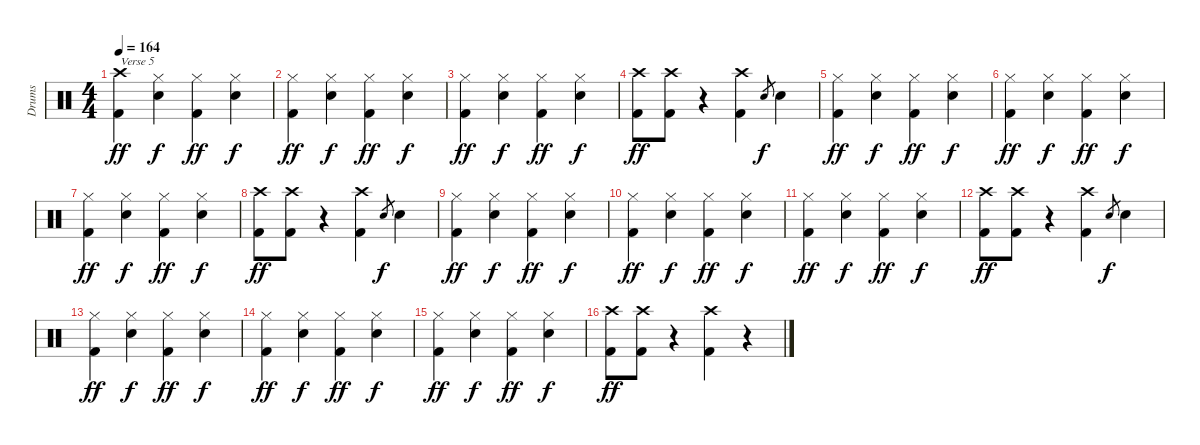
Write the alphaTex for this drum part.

\track ("Drums" "Drums") {instrument percussion}
\staff {score}
\articulation defaults
\ts (4 4)
\tempo 164
\clef neutral
\ks c
("Crash high (hit)" "Kick (hit) 2").4{txt "Verse 5" dy ff} ("Hi-Hat (closed)" "Snare (hit) 2").4{dy f} ("Hi-Hat (closed)" "Kick (hit) 2").4{dy ff} ("Hi-Hat (closed)" "Snare (hit) 2").4{dy f} |
("Hi-Hat (closed)" "Kick (hit) 2").4{dy ff} ("Hi-Hat (closed)" "Snare (hit) 2").4{dy f} ("Hi-Hat (closed)" "Kick (hit) 2").4{dy ff} ("Hi-Hat (closed)" "Snare (hit) 2").4{dy f} |
("Hi-Hat (closed)" "Kick (hit) 2").4{dy ff} ("Hi-Hat (closed)" "Snare (hit) 2").4{dy f} ("Hi-Hat (closed)" "Kick (hit) 2").4{dy ff} ("Hi-Hat (closed)" "Snare (hit) 2").4{dy f} |
("Crash high (hit)" "Kick (hit) 2").8{dy ff} ("Crash high (hit)" "Kick (hit) 2").8 r.4 ("Crash high (hit)" "Kick (hit) 2").4 "Snare (hit) 2".8{gr dy f} "Snare (hit) 2".4 |
("Hi-Hat (closed)" "Kick (hit) 2").4{dy ff} ("Hi-Hat (closed)" "Snare (hit) 2").4{dy f} ("Hi-Hat (closed)" "Kick (hit) 2").4{dy ff} ("Hi-Hat (closed)" "Snare (hit) 2").4{dy f} |
("Hi-Hat (closed)" "Kick (hit) 2").4{dy ff} ("Hi-Hat (closed)" "Snare (hit) 2").4{dy f} ("Hi-Hat (closed)" "Kick (hit) 2").4{dy ff} ("Hi-Hat (closed)" "Snare (hit) 2").4{dy f} |
("Hi-Hat (closed)" "Kick (hit) 2").4{dy ff} ("Hi-Hat (closed)" "Snare (hit) 2").4{dy f} ("Hi-Hat (closed)" "Kick (hit) 2").4{dy ff} ("Hi-Hat (closed)" "Snare (hit) 2").4{dy f} |
("Crash high (hit)" "Kick (hit) 2").8{dy ff} ("Crash high (hit)" "Kick (hit) 2").8 r.4 ("Crash high (hit)" "Kick (hit) 2").4 "Snare (hit) 2".8{gr dy f} "Snare (hit) 2".4 |
("Hi-Hat (closed)" "Kick (hit) 2").4{dy ff} ("Hi-Hat (closed)" "Snare (hit) 2").4{dy f} ("Hi-Hat (closed)" "Kick (hit) 2").4{dy ff} ("Hi-Hat (closed)" "Snare (hit) 2").4{dy f} |
("Hi-Hat (closed)" "Kick (hit) 2").4{dy ff} ("Hi-Hat (closed)" "Snare (hit) 2").4{dy f} ("Hi-Hat (closed)" "Kick (hit) 2").4{dy ff} ("Hi-Hat (closed)" "Snare (hit) 2").4{dy f} |
("Hi-Hat (closed)" "Kick (hit) 2").4{dy ff} ("Hi-Hat (closed)" "Snare (hit) 2").4{dy f} ("Hi-Hat (closed)" "Kick (hit) 2").4{dy ff} ("Hi-Hat (closed)" "Snare (hit) 2").4{dy f} |
("Crash high (hit)" "Kick (hit) 2").8{dy ff} ("Crash high (hit)" "Kick (hit) 2").8 r.4 ("Crash high (hit)" "Kick (hit) 2").4 "Snare (hit) 2".8{gr dy f} "Snare (hit) 2".4 |
("Hi-Hat (closed)" "Kick (hit) 2").4{dy ff} ("Hi-Hat (closed)" "Snare (hit) 2").4{dy f} ("Hi-Hat (closed)" "Kick (hit) 2").4{dy ff} ("Hi-Hat (closed)" "Snare (hit) 2").4{dy f} |
("Hi-Hat (closed)" "Kick (hit) 2").4{dy ff} ("Hi-Hat (closed)" "Snare (hit) 2").4{dy f} ("Hi-Hat (closed)" "Kick (hit) 2").4{dy ff} ("Hi-Hat (closed)" "Snare (hit) 2").4{dy f} |
("Hi-Hat (closed)" "Kick (hit) 2").4{dy ff} ("Hi-Hat (closed)" "Snare (hit) 2").4{dy f} ("Hi-Hat (closed)" "Kick (hit) 2").4{dy ff} ("Hi-Hat (closed)" "Snare (hit) 2").4{dy f} |
("Crash high (hit)" "Kick (hit) 2").8{dy ff} ("Crash high (hit)" "Kick (hit) 2").8 r.4 ("Crash high (hit)" "Kick (hit) 2").4 r.4
